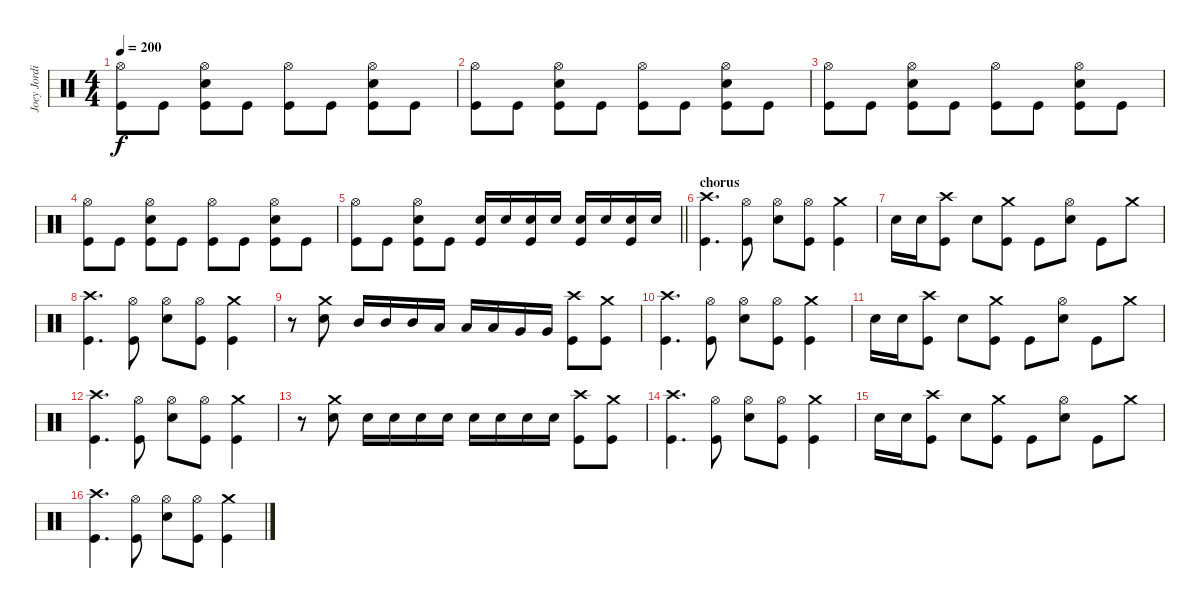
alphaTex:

\track ("Joey Jordison" "Joey Jordi") {instrument percussion}
\staff {score}
\articulation defaults
\ts (4 4)
\tempo 200
\clef neutral
\ks c
("Hi-Hat (open)" "Kick (hit)").8{dy f} "Kick (hit)".8 ("Hi-Hat (open)" "Electric Snare (hit)" "Kick (hit)").8 "Kick (hit)".8 ("Hi-Hat (open)" "Kick (hit)").8 "Kick (hit)".8 ("Hi-Hat (open)" "Electric Snare (hit)" "Kick (hit)").8 "Kick (hit)".8 |
("Hi-Hat (open)" "Kick (hit)").8 "Kick (hit)".8 ("Hi-Hat (open)" "Electric Snare (hit)" "Kick (hit)").8 "Kick (hit)".8 ("Hi-Hat (open)" "Kick (hit)").8 "Kick (hit)".8 ("Hi-Hat (open)" "Electric Snare (hit)" "Kick (hit)").8 "Kick (hit)".8 |
("Hi-Hat (open)" "Kick (hit)").8 "Kick (hit)".8 ("Hi-Hat (open)" "Electric Snare (hit)" "Kick (hit)").8 "Kick (hit)".8 ("Hi-Hat (open)" "Kick (hit)").8 "Kick (hit)".8 ("Hi-Hat (open)" "Electric Snare (hit)" "Kick (hit)").8 "Kick (hit)".8 |
("Hi-Hat (open)" "Kick (hit)").8 "Kick (hit)".8 ("Hi-Hat (open)" "Electric Snare (hit)" "Kick (hit)").8 "Kick (hit)".8 ("Hi-Hat (open)" "Kick (hit)").8 "Kick (hit)".8 ("Hi-Hat (open)" "Electric Snare (hit)" "Kick (hit)").8 "Kick (hit)".8 |
\barLineRight lightlight
("Hi-Hat (open)" "Kick (hit)").8 "Kick (hit)".8 ("Hi-Hat (open)" "Electric Snare (hit)" "Kick (hit)").8 "Kick (hit)".8 ("Electric Snare (hit)" "Kick (hit)").16 "Electric Snare (hit)".16 ("Electric Snare (hit)" "Kick (hit)").16 "Electric Snare (hit)".16 ("Electric Snare (hit)" "Kick (hit)").16 "Electric Snare (hit)".16 ("Electric Snare (hit)" "Kick (hit)").16 "Electric Snare (hit)".16 |
\section ("" "chorus")
("Crash high (hit)" "Kick (hit)").4{d} ("Hi-Hat (open)" "Kick (hit)").8 ("Hi-Hat (open)" "Electric Snare (hit)").8 ("Hi-Hat (open)" "Kick (hit)").8 ("Crash medium (hit)" "Kick (hit)").4 |
"Electric Snare (hit)".16 "Electric Snare (hit)".16 ("Crash high (hit)" "Kick (hit)").8 "Electric Snare (hit)".8 ("Crash medium (hit)" "Kick (hit)").8 "Kick (hit)".8 ("Hi-Hat (open)" "Electric Snare (hit)").8 "Kick (hit)".8 "Crash medium (hit)".8 |
("Crash high (hit)" "Kick (hit)").4{d} ("Hi-Hat (open)" "Kick (hit)").8 ("Hi-Hat (open)" "Electric Snare (hit)").8 ("Hi-Hat (open)" "Kick (hit)").8 ("Crash medium (hit)" "Kick (hit)").4 |
r.8 ("Crash medium (hit)" "Electric Snare (hit)").8 "Mid Tom (hit)".16 "Mid Tom (hit)".16 "Mid Tom (hit)".16 "Low Tom (hit)".16 "Low Tom (hit)".16 "Low Tom (hit)".16 "Very Low Tom (hit)".16 "Very Low Tom (hit)".16 ("Crash high (hit)" "Kick (hit)").8 ("Crash medium (hit)" "Kick (hit)").8 |
("Crash high (hit)" "Kick (hit)").4{d} ("Hi-Hat (open)" "Kick (hit)").8 ("Hi-Hat (open)" "Electric Snare (hit)").8 ("Hi-Hat (open)" "Kick (hit)").8 ("Crash medium (hit)" "Kick (hit)").4 |
"Electric Snare (hit)".16 "Electric Snare (hit)".16 ("Crash high (hit)" "Kick (hit)").8 "Electric Snare (hit)".8 ("Crash medium (hit)" "Kick (hit)").8 "Kick (hit)".8 ("Hi-Hat (open)" "Electric Snare (hit)").8 "Kick (hit)".8 "Crash medium (hit)".8 |
("Crash high (hit)" "Kick (hit)").4{d} ("Hi-Hat (open)" "Kick (hit)").8 ("Hi-Hat (open)" "Electric Snare (hit)").8 ("Hi-Hat (open)" "Kick (hit)").8 ("Crash medium (hit)" "Kick (hit)").4 |
r.8 ("Crash medium (hit)" "Electric Snare (hit)").8 "Electric Snare (hit)".16 "Electric Snare (hit)".16 "Electric Snare (hit)".16 "Electric Snare (hit)".16 "Electric Snare (hit)".16 "Electric Snare (hit)".16 "Electric Snare (hit)".16 "Electric Snare (hit)".16 ("Crash high (hit)" "Kick (hit)").8 ("Crash medium (hit)" "Kick (hit)").8 |
("Crash high (hit)" "Kick (hit)").4{d} ("Hi-Hat (open)" "Kick (hit)").8 ("Hi-Hat (open)" "Electric Snare (hit)").8 ("Hi-Hat (open)" "Kick (hit)").8 ("Crash medium (hit)" "Kick (hit)").4 |
"Electric Snare (hit)".16 "Electric Snare (hit)".16 ("Crash high (hit)" "Kick (hit)").8 "Electric Snare (hit)".8 ("Crash medium (hit)" "Kick (hit)").8 "Kick (hit)".8 ("Hi-Hat (open)" "Electric Snare (hit)").8 "Kick (hit)".8 "Crash medium (hit)".8 |
("Crash high (hit)" "Kick (hit)").4{d} ("Hi-Hat (open)" "Kick (hit)").8 ("Hi-Hat (open)" "Electric Snare (hit)").8 ("Hi-Hat (open)" "Kick (hit)").8 ("Crash medium (hit)" "Kick (hit)").4
